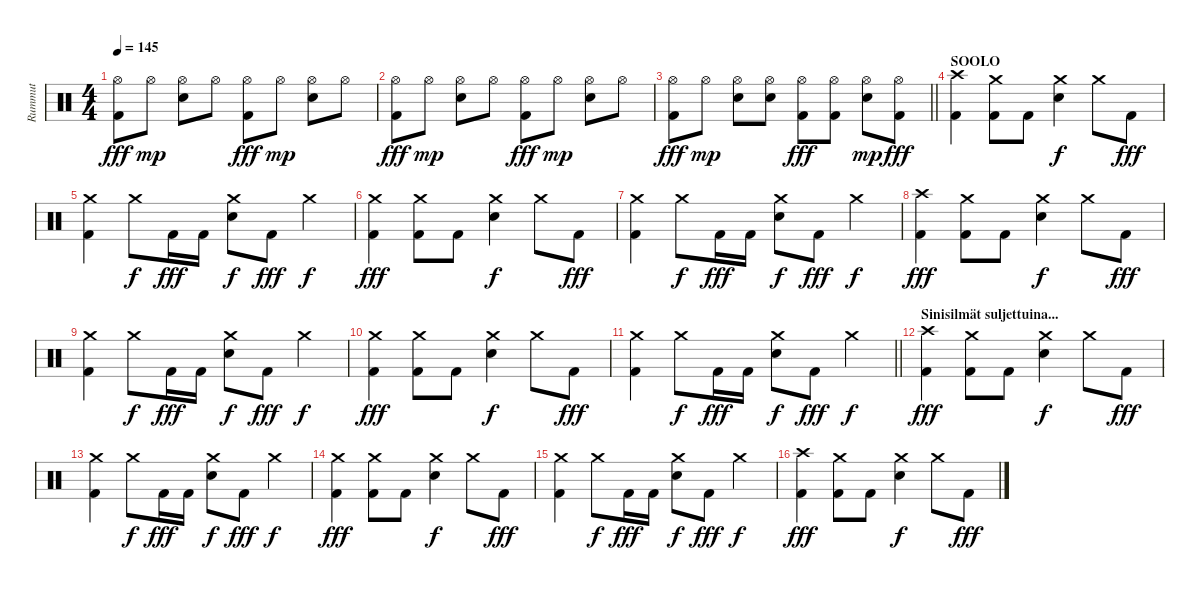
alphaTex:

\track ("Rummut" "Rummut") {instrument percussion}
\staff {score}
\articulation defaults
\ts (4 4)
\tempo 145
\clef neutral
\ks c
("Hi-Hat (open)" "Kick (hit) 2").8{dy fff} "Hi-Hat (open)".8{dy mp} ("Hi-Hat (open)" "Snare (hit) 2").8 "Hi-Hat (open)".8 ("Hi-Hat (open)" "Kick (hit) 2").8{dy fff} "Hi-Hat (open)".8{dy mp} ("Hi-Hat (open)" "Snare (hit) 2").8 "Hi-Hat (open)".8 |
("Hi-Hat (open)" "Kick (hit) 2").8{dy fff} "Hi-Hat (open)".8{dy mp} ("Hi-Hat (open)" "Snare (hit) 2").8 "Hi-Hat (open)".8 ("Hi-Hat (open)" "Kick (hit) 2").8{dy fff} "Hi-Hat (open)".8{dy mp} ("Hi-Hat (open)" "Snare (hit) 2").8 "Hi-Hat (open)".8 |
\barLineRight lightlight
("Hi-Hat (open)" "Kick (hit) 2").8{dy fff} "Hi-Hat (open)".8{dy mp} ("Hi-Hat (open)" "Snare (hit) 2").8 ("Hi-Hat (open)" "Snare (hit) 2").8 ("Hi-Hat (open)" "Kick (hit) 2").8{dy fff} ("Hi-Hat (open)" "Kick (hit) 2").8 ("Hi-Hat (open)" "Snare (hit) 2").8{dy mp} ("Hi-Hat (open)" "Kick (hit) 2").8{dy fff} |
\section ("" "SOOLO")
("Crash high (hit)" "Kick (hit) 2").4 ("Crash medium (hit)" "Kick (hit) 2").8 "Kick (hit) 2".8 ("Crash medium (hit)" "Snare (hit) 2").4{dy f} "Crash medium (hit)".8 "Kick (hit) 2".8{dy fff} |
("Crash medium (hit)" "Kick (hit) 2").4 "Crash medium (hit)".8{dy f} "Kick (hit) 2".16{dy fff} "Kick (hit) 2".16 ("Crash medium (hit)" "Snare (hit) 2").8{dy f} "Kick (hit) 2".8{dy fff} "Crash medium (hit)".4{dy f} |
("Crash medium (hit)" "Kick (hit) 2").4{dy fff} ("Crash medium (hit)" "Kick (hit) 2").8 "Kick (hit) 2".8 ("Crash medium (hit)" "Snare (hit) 2").4{dy f} "Crash medium (hit)".8 "Kick (hit) 2".8{dy fff} |
("Crash medium (hit)" "Kick (hit) 2").4 "Crash medium (hit)".8{dy f} "Kick (hit) 2".16{dy fff} "Kick (hit) 2".16 ("Crash medium (hit)" "Snare (hit) 2").8{dy f} "Kick (hit) 2".8{dy fff} "Crash medium (hit)".4{dy f} |
("Crash high (hit)" "Kick (hit) 2").4{dy fff} ("Crash medium (hit)" "Kick (hit) 2").8 "Kick (hit) 2".8 ("Crash medium (hit)" "Snare (hit) 2").4{dy f} "Crash medium (hit)".8 "Kick (hit) 2".8{dy fff} |
("Crash medium (hit)" "Kick (hit) 2").4 "Crash medium (hit)".8{dy f} "Kick (hit) 2".16{dy fff} "Kick (hit) 2".16 ("Crash medium (hit)" "Snare (hit) 2").8{dy f} "Kick (hit) 2".8{dy fff} "Crash medium (hit)".4{dy f} |
("Crash medium (hit)" "Kick (hit) 2").4{dy fff} ("Crash medium (hit)" "Kick (hit) 2").8 "Kick (hit) 2".8 ("Crash medium (hit)" "Snare (hit) 2").4{dy f} "Crash medium (hit)".8 "Kick (hit) 2".8{dy fff} |
\barLineRight lightlight
("Crash medium (hit)" "Kick (hit) 2").4 "Crash medium (hit)".8{dy f} "Kick (hit) 2".16{dy fff} "Kick (hit) 2".16 ("Crash medium (hit)" "Snare (hit) 2").8{dy f} "Kick (hit) 2".8{dy fff} "Crash medium (hit)".4{dy f} |
\section ("" "Sinisilmät suljettuina...")
("Crash high (hit)" "Kick (hit) 2").4{dy fff} ("Crash medium (hit)" "Kick (hit) 2").8 "Kick (hit) 2".8 ("Crash medium (hit)" "Snare (hit) 2").4{dy f} "Crash medium (hit)".8 "Kick (hit) 2".8{dy fff} |
("Crash medium (hit)" "Kick (hit) 2").4 "Crash medium (hit)".8{dy f} "Kick (hit) 2".16{dy fff} "Kick (hit) 2".16 ("Crash medium (hit)" "Snare (hit) 2").8{dy f} "Kick (hit) 2".8{dy fff} "Crash medium (hit)".4{dy f} |
("Crash medium (hit)" "Kick (hit) 2").4{dy fff} ("Crash medium (hit)" "Kick (hit) 2").8 "Kick (hit) 2".8 ("Crash medium (hit)" "Snare (hit) 2").4{dy f} "Crash medium (hit)".8 "Kick (hit) 2".8{dy fff} |
("Crash medium (hit)" "Kick (hit) 2").4 "Crash medium (hit)".8{dy f} "Kick (hit) 2".16{dy fff} "Kick (hit) 2".16 ("Crash medium (hit)" "Snare (hit) 2").8{dy f} "Kick (hit) 2".8{dy fff} "Crash medium (hit)".4{dy f} |
("Crash high (hit)" "Kick (hit) 2").4{dy fff} ("Crash medium (hit)" "Kick (hit) 2").8 "Kick (hit) 2".8 ("Crash medium (hit)" "Snare (hit) 2").4{dy f} "Crash medium (hit)".8 "Kick (hit) 2".8{dy fff}
